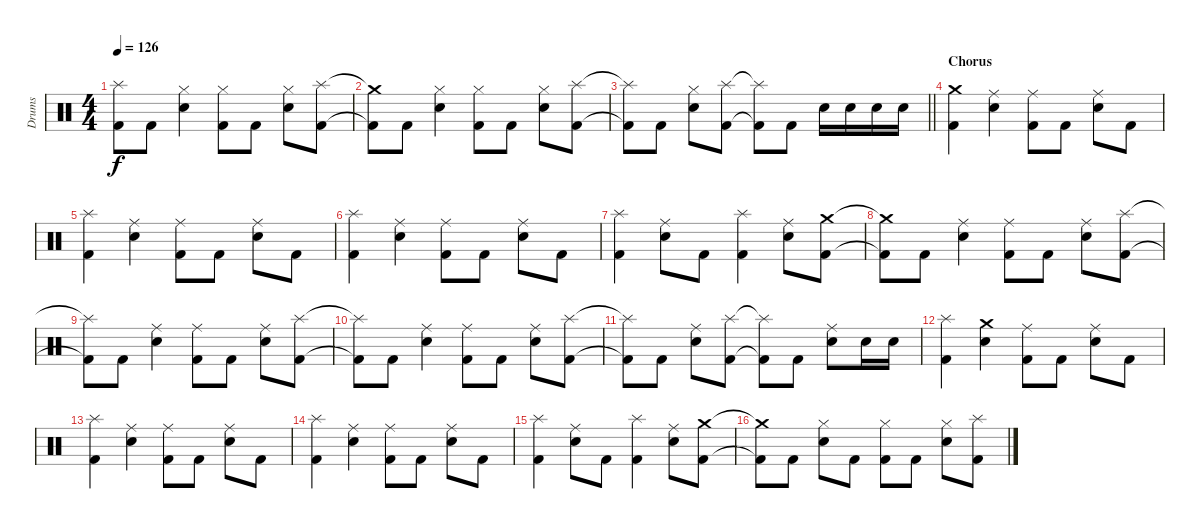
\track ("Drums" "Drums") {instrument percussion}
\staff {score}
\articulation defaults
\ts (4 4)
\tempo 126
\clef neutral
\ks c
("Splash (hit)"{t} "Kick (hit) 2"{t}).8{dy f} "Kick (hit) 2".8 ("Hi-Hat (closed)" "Snare (hit) 2").4 ("Hi-Hat (closed)" "Kick (hit) 2").8 "Kick (hit) 2".8 ("Hi-Hat (closed)" "Snare (hit) 2").8 ("Splash (hit)" "Kick (hit) 2").8 |
("Crash medium (hit)"{t} "Kick (hit) 2"{t}).8 "Kick (hit) 2".8 ("Hi-Hat (closed)" "Snare (hit) 2").4 ("Hi-Hat (closed)" "Kick (hit) 2").8 "Kick (hit) 2".8 ("Hi-Hat (closed)" "Snare (hit) 2").8 ("Splash (hit)" "Kick (hit) 2").8 |
\barLineRight lightlight
("Splash (hit)"{t} "Kick (hit) 2"{t}).8 "Kick (hit) 2".8 ("Hi-Hat (closed)" "Snare (hit) 2").8 ("Splash (hit)" "Kick (hit) 2").8 ("Splash (hit)"{t} "Kick (hit) 2"{t}).8 "Kick (hit) 2".8 "Snare (hit) 2".16 "Snare (hit) 2".16 "Snare (hit) 2".16 "Snare (hit) 2".16 |
\section ("" "Chorus")
("Crash medium (hit)" "Kick (hit) 2").4 ("Ride (middle)" "Snare (hit) 2").4 ("Ride (middle)" "Kick (hit) 2").8 "Kick (hit) 2".8 ("Ride (middle)" "Snare (hit) 2").8 "Kick (hit) 2".8 |
("Splash (hit)" "Kick (hit) 2").4 ("Ride (middle)" "Snare (hit) 2").4 ("Ride (middle)" "Kick (hit) 2").8 "Kick (hit) 2".8 ("Ride (middle)" "Snare (hit) 2").8 "Kick (hit) 2".8 |
("Splash (hit)" "Kick (hit) 2").4 ("Ride (middle)" "Snare (hit) 2").4 ("Ride (middle)" "Kick (hit) 2").8 "Kick (hit) 2".8 ("Ride (middle)" "Snare (hit) 2").8 "Kick (hit) 2".8 |
("Splash (hit)" "Kick (hit) 2").4 ("Ride (middle)" "Snare (hit) 2").8 "Kick (hit) 2".8 ("Splash (hit)" "Kick (hit) 2").4 ("Ride (middle)" "Snare (hit) 2").8 ("Crash medium (hit)" "Kick (hit) 2").8 |
("Crash medium (hit)"{t} "Kick (hit) 2"{t}).8 "Kick (hit) 2".8 ("Ride (middle)" "Snare (hit) 2").4 ("Ride (middle)" "Kick (hit) 2").8 "Kick (hit) 2".8 ("Ride (middle)" "Snare (hit) 2").8 ("Splash (hit)" "Kick (hit) 2").8 |
("Splash (hit)"{t} "Kick (hit) 2"{t}).8 "Kick (hit) 2".8 ("Ride (middle)" "Snare (hit) 2").4 ("Ride (middle)" "Kick (hit) 2").8 "Kick (hit) 2".8 ("Ride (middle)" "Snare (hit) 2").8 ("Splash (hit)" "Kick (hit) 2").8 |
("Splash (hit)"{t} "Kick (hit) 2"{t}).8 "Kick (hit) 2".8 ("Ride (middle)" "Snare (hit) 2").4 ("Ride (middle)" "Kick (hit) 2").8 "Kick (hit) 2".8 ("Ride (middle)" "Snare (hit) 2").8 ("Splash (hit)" "Kick (hit) 2").8 |
("Splash (hit)"{t} "Kick (hit) 2"{t}).8 "Kick (hit) 2".8 ("Ride (middle)" "Snare (hit) 2").8 ("Splash (hit)" "Kick (hit) 2").8 ("Splash (hit)"{t} "Kick (hit) 2"{t}).8 "Kick (hit) 2".8 ("Ride (middle)" "Snare (hit) 2").8 "Snare (hit) 2".16 "Snare (hit) 2".16 |
("Splash (hit)" "Kick (hit) 2").4 ("Crash medium (hit)" "Snare (hit) 2").4 ("Ride (middle)" "Kick (hit) 2").8 "Kick (hit) 2".8 ("Ride (middle)" "Snare (hit) 2").8 "Kick (hit) 2".8 |
("Splash (hit)" "Kick (hit) 2").4 ("Ride (middle)" "Snare (hit) 2").4 ("Ride (middle)" "Kick (hit) 2").8 "Kick (hit) 2".8 ("Ride (middle)" "Snare (hit) 2").8 "Kick (hit) 2".8 |
("Splash (hit)" "Kick (hit) 2").4 ("Ride (middle)" "Snare (hit) 2").4 ("Ride (middle)" "Kick (hit) 2").8 "Kick (hit) 2".8 ("Ride (middle)" "Snare (hit) 2").8 "Kick (hit) 2".8 |
("Splash (hit)" "Kick (hit) 2").4 ("Ride (middle)" "Snare (hit) 2").8 "Kick (hit) 2".8 ("Splash (hit)" "Kick (hit) 2").4 ("Ride (middle)" "Snare (hit) 2").8 ("Crash medium (hit)" "Kick (hit) 2").8 |
("Crash medium (hit)"{t} "Kick (hit) 2"{t}).8 "Kick (hit) 2".8 ("Hi-Hat (closed)" "Snare (hit) 2").8 "Kick (hit) 2".8 ("Hi-Hat (closed)" "Kick (hit) 2").8 "Kick (hit) 2".8 ("Hi-Hat (closed)" "Snare (hit) 2").8 ("Splash (hit)" "Kick (hit) 2").8
